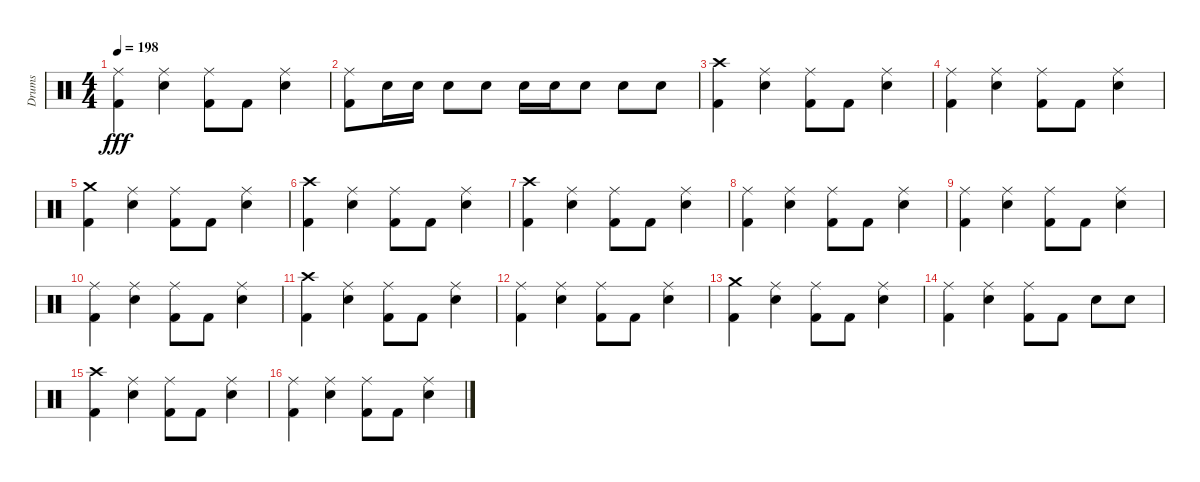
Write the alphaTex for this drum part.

\track ("Drums" "Drums") {instrument percussion}
\staff {score}
\articulation defaults
\ts (4 4)
\tempo 198
\clef neutral
\ks c
("Ride (middle)" "Kick (hit) 2").4{dy fff} ("Ride (middle)" "Electric Snare (hit)").4 ("Ride (middle)" "Kick (hit) 2").8 "Kick (hit) 2".8 ("Ride (middle)" "Electric Snare (hit)").4 |
("Ride (middle)" "Kick (hit) 2").8 "Electric Snare (hit)".16 "Electric Snare (hit)".16 "Electric Snare (hit)".8 "Electric Snare (hit)".8 "Electric Snare (hit)".16 "Electric Snare (hit)".16 "Electric Snare (hit)".8 "Electric Snare (hit)".8 "Electric Snare (hit)".8 |
("Crash high (hit)" "Kick (hit) 2").4 ("Ride (middle)" "Electric Snare (hit)").4 ("Ride (middle)" "Kick (hit) 2").8 "Kick (hit) 2".8 ("Ride (middle)" "Electric Snare (hit)").4 |
("Ride (middle)" "Kick (hit) 2").4 ("Ride (middle)" "Electric Snare (hit)").4 ("Ride (middle)" "Kick (hit) 2").8 "Kick (hit) 2".8 ("Ride (middle)" "Electric Snare (hit)").4 |
("Crash medium (hit)" "Kick (hit) 2").4 ("Ride (middle)" "Electric Snare (hit)").4 ("Ride (middle)" "Kick (hit) 2").8 "Kick (hit) 2".8 ("Ride (middle)" "Electric Snare (hit)").4 |
("Crash high (hit)" "Kick (hit) 2").4 ("Ride (middle)" "Electric Snare (hit)").4 ("Ride (middle)" "Kick (hit) 2").8 "Kick (hit) 2".8 ("Ride (middle)" "Electric Snare (hit)").4 |
("Crash high (hit)" "Kick (hit) 2").4 ("Ride (middle)" "Electric Snare (hit)").4 ("Ride (middle)" "Kick (hit) 2").8 "Kick (hit) 2".8 ("Ride (middle)" "Electric Snare (hit)").4 |
("Ride (middle)" "Kick (hit) 2").4 ("Ride (middle)" "Electric Snare (hit)").4 ("Ride (middle)" "Kick (hit) 2").8 "Kick (hit) 2".8 ("Ride (middle)" "Electric Snare (hit)").4 |
("Ride (middle)" "Kick (hit) 2").4 ("Ride (middle)" "Electric Snare (hit)").4 ("Ride (middle)" "Kick (hit) 2").8 "Kick (hit) 2".8 ("Ride (middle)" "Electric Snare (hit)").4 |
("Ride (middle)" "Kick (hit) 2").4 ("Ride (middle)" "Electric Snare (hit)").4 ("Ride (middle)" "Kick (hit) 2").8 "Kick (hit) 2".8 ("Ride (middle)" "Electric Snare (hit)").4 |
("Crash high (hit)" "Kick (hit) 2").4 ("Ride (middle)" "Electric Snare (hit)").4 ("Ride (middle)" "Kick (hit) 2").8 "Kick (hit) 2".8 ("Ride (middle)" "Electric Snare (hit)").4 |
("Ride (middle)" "Kick (hit) 2").4 ("Ride (middle)" "Electric Snare (hit)").4 ("Ride (middle)" "Kick (hit) 2").8 "Kick (hit) 2".8 ("Ride (middle)" "Electric Snare (hit)").4 |
("Crash medium (hit)" "Kick (hit) 2").4 ("Ride (middle)" "Electric Snare (hit)").4 ("Ride (middle)" "Kick (hit) 2").8 "Kick (hit) 2".8 ("Ride (middle)" "Electric Snare (hit)").4 |
("Ride (middle)" "Kick (hit) 2").4 ("Ride (middle)" "Electric Snare (hit)").4 ("Ride (middle)" "Kick (hit) 2").8 "Kick (hit) 2".8 "Electric Snare (hit)".8 "Electric Snare (hit)".8 |
("Crash high (hit)" "Kick (hit) 2").4 ("Ride (middle)" "Electric Snare (hit)").4 ("Ride (middle)" "Kick (hit) 2").8 "Kick (hit) 2".8 ("Ride (middle)" "Electric Snare (hit)").4 |
("Ride (middle)" "Kick (hit) 2").4 ("Ride (middle)" "Electric Snare (hit)").4 ("Ride (middle)" "Kick (hit) 2").8 "Kick (hit) 2".8 ("Ride (middle)" "Electric Snare (hit)").4
